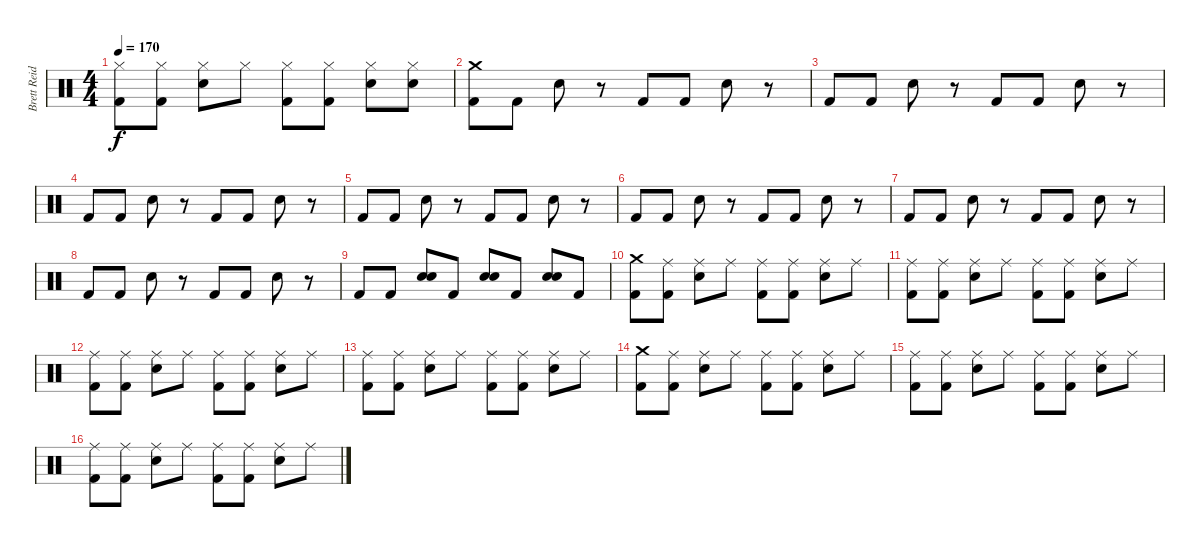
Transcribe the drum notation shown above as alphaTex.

\track ("Brett Reid" "Brett Reid") {instrument percussion}
\staff {score}
\articulation defaults
\ts (4 4)
\tempo 170
\clef neutral
\ks c
("Hi-Hat (closed)" "Kick (hit) 2").8{dy f} ("Hi-Hat (closed)" "Kick (hit) 2").8 ("Hi-Hat (closed)" "Snare (hit) 2").8 "Hi-Hat (closed)".8 ("Hi-Hat (closed)" "Kick (hit) 2").8 ("Hi-Hat (closed)" "Kick (hit) 2").8 ("Hi-Hat (closed)" "Snare (hit) 2").8 ("Hi-Hat (closed)" "Snare (hit) 2").8 |
("Crash medium (hit)" "Kick (hit) 2").8 "Kick (hit) 2".8 "Snare (hit) 2".8 r.8 "Kick (hit) 2".8 "Kick (hit) 2".8 "Snare (hit) 2".8 r.8 |
"Kick (hit) 2".8 "Kick (hit) 2".8 "Snare (hit) 2".8 r.8 "Kick (hit) 2".8 "Kick (hit) 2".8 "Snare (hit) 2".8 r.8 |
"Kick (hit) 2".8 "Kick (hit) 2".8 "Snare (hit) 2".8 r.8 "Kick (hit) 2".8 "Kick (hit) 2".8 "Snare (hit) 2".8 r.8 |
"Kick (hit) 2".8 "Kick (hit) 2".8 "Snare (hit) 2".8 r.8 "Kick (hit) 2".8 "Kick (hit) 2".8 "Snare (hit) 2".8 r.8 |
"Kick (hit) 2".8 "Kick (hit) 2".8 "Snare (hit) 2".8 r.8 "Kick (hit) 2".8 "Kick (hit) 2".8 "Snare (hit) 2".8 r.8 |
"Kick (hit) 2".8 "Kick (hit) 2".8 "Snare (hit) 2".8 r.8 "Kick (hit) 2".8 "Kick (hit) 2".8 "Snare (hit) 2".8 r.8 |
"Kick (hit) 2".8 "Kick (hit) 2".8 "Snare (hit) 2".8 r.8 "Kick (hit) 2".8 "Kick (hit) 2".8 "Snare (hit) 2".8 r.8 |
"Kick (hit) 2".8 "Kick (hit) 2".8 ("Snare (hit) 2" "Snare (hit) 2").8 "Kick (hit) 2".8 ("Snare (hit) 2" "Snare (hit) 2").8 "Kick (hit) 2".8 ("Snare (hit) 2" "Snare (hit) 2").8 "Kick (hit) 2".8 |
("Crash medium (hit)" "Kick (hit) 2").8 ("Ride (middle)" "Kick (hit) 2").8 ("Ride (middle)" "Snare (hit) 2").8 "Ride (middle)".8 ("Ride (middle)" "Kick (hit) 2").8 ("Ride (middle)" "Kick (hit) 2").8 ("Ride (middle)" "Snare (hit) 2").8 "Ride (middle)".8 |
("Ride (middle)" "Kick (hit) 2").8 ("Ride (middle)" "Kick (hit) 2").8 ("Ride (middle)" "Snare (hit) 2").8 "Ride (middle)".8 ("Ride (middle)" "Kick (hit) 2").8 ("Ride (middle)" "Kick (hit) 2").8 ("Ride (middle)" "Snare (hit) 2").8 "Ride (middle)".8 |
("Ride (middle)" "Kick (hit) 2").8 ("Ride (middle)" "Kick (hit) 2").8 ("Ride (middle)" "Snare (hit) 2").8 "Ride (middle)".8 ("Ride (middle)" "Kick (hit) 2").8 ("Ride (middle)" "Kick (hit) 2").8 ("Ride (middle)" "Snare (hit) 2").8 "Ride (middle)".8 |
("Ride (middle)" "Kick (hit) 2").8 ("Ride (middle)" "Kick (hit) 2").8 ("Ride (middle)" "Snare (hit) 2").8 "Ride (middle)".8 ("Ride (middle)" "Kick (hit) 2").8 ("Ride (middle)" "Kick (hit) 2").8 ("Ride (middle)" "Snare (hit) 2").8 "Ride (middle)".8 |
("Crash medium (hit)" "Kick (hit) 2").8 ("Ride (middle)" "Kick (hit) 2").8 ("Ride (middle)" "Snare (hit) 2").8 "Ride (middle)".8 ("Ride (middle)" "Kick (hit) 2").8 ("Ride (middle)" "Kick (hit) 2").8 ("Ride (middle)" "Snare (hit) 2").8 "Ride (middle)".8 |
("Ride (middle)" "Kick (hit) 2").8 ("Ride (middle)" "Kick (hit) 2").8 ("Ride (middle)" "Snare (hit) 2").8 "Ride (middle)".8 ("Ride (middle)" "Kick (hit) 2").8 ("Ride (middle)" "Kick (hit) 2").8 ("Ride (middle)" "Snare (hit) 2").8 "Ride (middle)".8 |
("Ride (middle)" "Kick (hit) 2").8 ("Ride (middle)" "Kick (hit) 2").8 ("Ride (middle)" "Snare (hit) 2").8 "Ride (middle)".8 ("Ride (middle)" "Kick (hit) 2").8 ("Ride (middle)" "Kick (hit) 2").8 ("Ride (middle)" "Snare (hit) 2").8 "Ride (middle)".8
